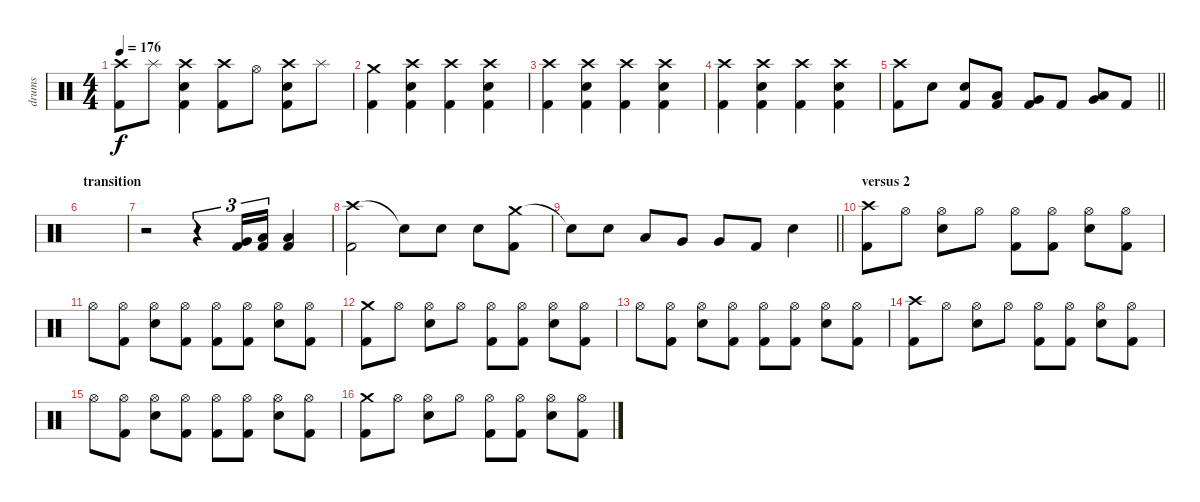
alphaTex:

\track ("drums" "drums") {instrument percussion}
\staff {score}
\articulation defaults
\ts (4 4)
\tempo 176
\clef neutral
\ks c
("Crash high (hit)" "Kick (hit) 2").8{dy f} "Splash (hit)".8 ("Crash high (hit)" "Kick (hit) 2" "Snare (hit) 2").4 ("Crash high (hit)" "Kick (hit) 2").8 "Hi-Hat (open)".8 ("Crash high (hit)" "Snare (hit) 2" "Kick (hit) 2").8 "Splash (hit)".8 |
("Crash medium (hit)" "Kick (hit) 2").4 ("Crash high (hit)" "Snare (hit) 2" "Kick (hit) 2").4 ("Crash high (hit)" "Kick (hit) 2").4 ("Crash high (hit)" "Snare (hit) 2" "Kick (hit) 2").4 |
("Crash high (hit)" "Kick (hit) 2").4 ("Crash high (hit)" "Snare (hit) 2" "Kick (hit) 2").4 ("Crash high (hit)" "Kick (hit) 2").4 ("Crash high (hit)" "Snare (hit) 2" "Kick (hit) 2").4 |
("Crash high (hit)" "Kick (hit) 2").4 ("Crash high (hit)" "Snare (hit) 2" "Kick (hit) 2").4 ("Crash high (hit)" "Kick (hit) 2").4 ("Crash high (hit)" "Snare (hit) 2" "Kick (hit) 2").4 |
\barLineRight lightlight
("Crash high (hit)" "Kick (hit) 2").8 "Snare (hit) 2".8 ("Snare (hit) 2" "Kick (hit) 2").8 ("Low Tom (hit)" "Kick (hit) 2").8 ("Very Low Tom (hit)" "Kick (hit) 2").8 "Kick (hit) 2".8 ("Very Low Tom (hit)" "Low Floor Tom (hit)").8 "Kick (hit) 2".8 |
\section ("" "transition")
|
r.2 r.4{tu (3 2)} ("Very Low Tom (hit)" "Kick (hit) 2").16{tu (3 2)} ("Low Floor Tom (hit)" "Kick (hit) 2").16{tu (3 2)} ("Low Floor Tom (hit)" "Kick (hit) 2").4 |
("Crash high (hit)" "Kick (hit) 2").2 "Snare (hit) 2"{t}.8 "Snare (hit) 2".8 "Snare (hit) 2".8 ("Crash medium (hit)" "Kick (hit) 2").8 |
\barLineRight lightlight "Snare (hit)"{t}.8 "Snare (hit) 2".8 "Low Tom (hit)".8 "Very Low Tom (hit)".8 "Very Low Tom (hit)".8 "Kick (hit) 2".8 "Snare (hit) 2".4
|
\section ("" "versus 2")
("Crash high (hit)" "Kick (hit) 2").8 "Hi-Hat (open)".8 ("Hi-Hat (open)" "Snare (hit) 2").8 "Hi-Hat (open)".8 ("Hi-Hat (open)" "Kick (hit) 2").8 ("Hi-Hat (open)" "Kick (hit) 2").8 ("Hi-Hat (open)" "Snare (hit) 2").8 ("Hi-Hat (open)" "Kick (hit) 2").8 |
"Hi-Hat (open)".8 ("Hi-Hat (open)" "Kick (hit) 2").8 ("Hi-Hat (open)" "Snare (hit) 2").8 ("Hi-Hat (open)" "Kick (hit) 2").8 ("Hi-Hat (open)" "Kick (hit) 2").8 ("Hi-Hat (open)" "Kick (hit) 2").8 ("Hi-Hat (open)" "Snare (hit) 2").8 ("Hi-Hat (open)" "Kick (hit) 2").8 |
("Crash medium (hit)" "Kick (hit) 2").8 "Hi-Hat (open)".8 ("Hi-Hat (open)" "Snare (hit) 2").8 "Hi-Hat (open)".8 ("Hi-Hat (open)" "Kick (hit) 2").8 ("Hi-Hat (open)" "Kick (hit) 2").8 ("Hi-Hat (open)" "Snare (hit) 2").8 ("Hi-Hat (open)" "Kick (hit) 2").8 |
"Hi-Hat (open)".8 ("Hi-Hat (open)" "Kick (hit) 2").8 ("Hi-Hat (open)" "Snare (hit) 2").8 ("Hi-Hat (open)" "Kick (hit) 2").8 ("Hi-Hat (open)" "Kick (hit) 2").8 ("Hi-Hat (open)" "Kick (hit) 2").8 ("Hi-Hat (open)" "Snare (hit) 2").8 ("Hi-Hat (open)" "Kick (hit) 2").8 |
("Crash high (hit)" "Kick (hit) 2").8 "Hi-Hat (open)".8 ("Hi-Hat (open)" "Snare (hit) 2").8 "Hi-Hat (open)".8 ("Hi-Hat (open)" "Kick (hit) 2").8 ("Hi-Hat (open)" "Kick (hit) 2").8 ("Hi-Hat (open)" "Snare (hit) 2").8 ("Hi-Hat (open)" "Kick (hit) 2").8 |
"Hi-Hat (open)".8 ("Hi-Hat (open)" "Kick (hit) 2").8 ("Hi-Hat (open)" "Snare (hit) 2").8 ("Hi-Hat (open)" "Kick (hit) 2").8 ("Hi-Hat (open)" "Kick (hit) 2").8 ("Hi-Hat (open)" "Kick (hit) 2").8 ("Hi-Hat (open)" "Snare (hit) 2").8 ("Hi-Hat (open)" "Kick (hit) 2").8 |
("Crash medium (hit)" "Kick (hit) 2").8 "Hi-Hat (open)".8 ("Hi-Hat (open)" "Snare (hit) 2").8 "Hi-Hat (open)".8 ("Hi-Hat (open)" "Kick (hit) 2").8 ("Hi-Hat (open)" "Kick (hit) 2").8 ("Hi-Hat (open)" "Snare (hit) 2").8 ("Hi-Hat (open)" "Kick (hit) 2").8
